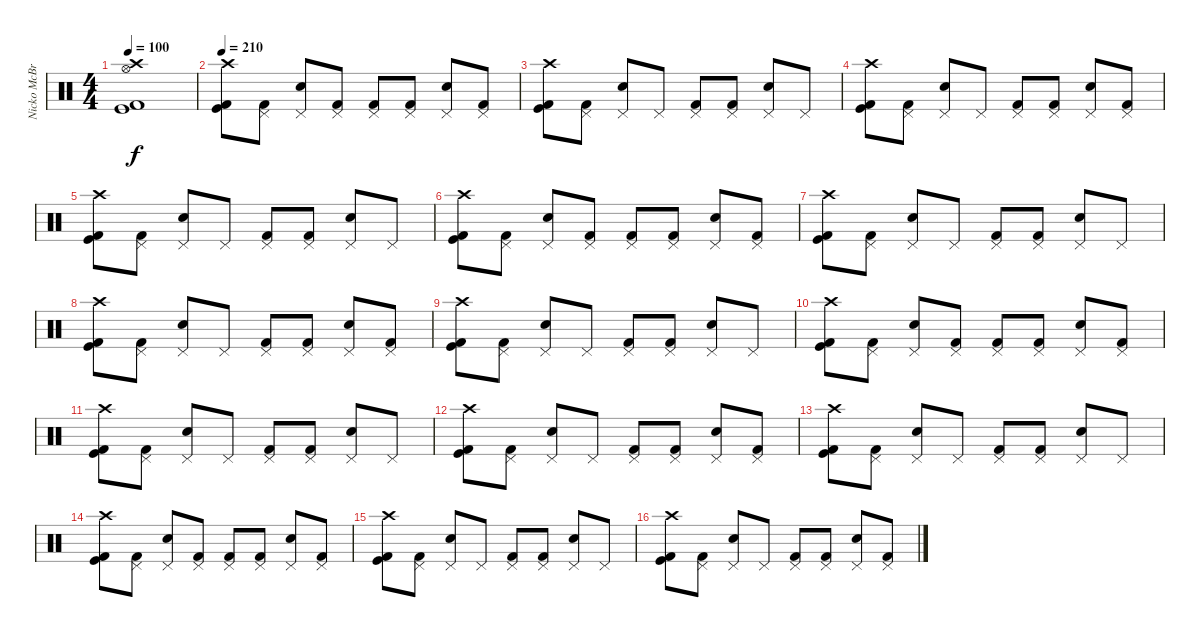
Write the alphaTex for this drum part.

\track ("Nicko McBrain" "Nicko McBr") {instrument percussion}
\staff {score}
\articulation defaults
\ts (4 4)
\tempo 100
\clef neutral
\ks c
("Crash high (hit)" "Hi-Hat (open)" "Kick (hit)" "Kick (hit) 2").1{dy f} |
\tempo 210
("Crash high (hit)" "Kick (hit)" "Kick (hit) 2").8 ("Pedal Hi-Hat (hit)" "Kick (hit) 2").8 ("Pedal Hi-Hat (hit)" "Snare (hit) 2").8 ("Pedal Hi-Hat (hit)" "Kick (hit) 2").8 ("Pedal Hi-Hat (hit)" "Kick (hit) 2").8 ("Pedal Hi-Hat (hit)" "Kick (hit) 2").8 ("Pedal Hi-Hat (hit)" "Snare (hit) 2").8 ("Pedal Hi-Hat (hit)" "Kick (hit) 2").8 |
("Crash high (hit)" "Kick (hit)" "Kick (hit) 2").8 ("Pedal Hi-Hat (hit)" "Kick (hit) 2").8 ("Pedal Hi-Hat (hit)" "Snare (hit) 2").8 "Pedal Hi-Hat (hit)".8 ("Pedal Hi-Hat (hit)" "Kick (hit) 2").8 ("Pedal Hi-Hat (hit)" "Kick (hit) 2").8 ("Pedal Hi-Hat (hit)" "Snare (hit) 2").8 "Pedal Hi-Hat (hit)".8 |
("Crash high (hit)" "Kick (hit)" "Kick (hit) 2").8 ("Pedal Hi-Hat (hit)" "Kick (hit) 2").8 ("Pedal Hi-Hat (hit)" "Snare (hit) 2").8 "Pedal Hi-Hat (hit)".8 ("Pedal Hi-Hat (hit)" "Kick (hit) 2").8 ("Pedal Hi-Hat (hit)" "Kick (hit) 2").8 ("Pedal Hi-Hat (hit)" "Snare (hit) 2").8 ("Pedal Hi-Hat (hit)" "Kick (hit) 2").8 |
("Crash high (hit)" "Kick (hit)" "Kick (hit) 2").8 ("Pedal Hi-Hat (hit)" "Kick (hit) 2").8 ("Pedal Hi-Hat (hit)" "Snare (hit) 2").8 "Pedal Hi-Hat (hit)".8 ("Pedal Hi-Hat (hit)" "Kick (hit) 2").8 ("Pedal Hi-Hat (hit)" "Kick (hit) 2").8 ("Pedal Hi-Hat (hit)" "Snare (hit) 2").8 "Pedal Hi-Hat (hit)".8 |
("Crash high (hit)" "Kick (hit)" "Kick (hit) 2").8 ("Pedal Hi-Hat (hit)" "Kick (hit) 2").8 ("Pedal Hi-Hat (hit)" "Snare (hit) 2").8 ("Pedal Hi-Hat (hit)" "Kick (hit) 2").8 ("Pedal Hi-Hat (hit)" "Kick (hit) 2").8 ("Pedal Hi-Hat (hit)" "Kick (hit) 2").8 ("Pedal Hi-Hat (hit)" "Snare (hit) 2").8 ("Pedal Hi-Hat (hit)" "Kick (hit) 2").8 |
("Crash high (hit)" "Kick (hit)" "Kick (hit) 2").8 ("Pedal Hi-Hat (hit)" "Kick (hit) 2").8 ("Pedal Hi-Hat (hit)" "Snare (hit) 2").8 "Pedal Hi-Hat (hit)".8 ("Pedal Hi-Hat (hit)" "Kick (hit) 2").8 ("Pedal Hi-Hat (hit)" "Kick (hit) 2").8 ("Pedal Hi-Hat (hit)" "Snare (hit) 2").8 "Pedal Hi-Hat (hit)".8 |
("Crash high (hit)" "Kick (hit)" "Kick (hit) 2").8 ("Pedal Hi-Hat (hit)" "Kick (hit) 2").8 ("Pedal Hi-Hat (hit)" "Snare (hit) 2").8 "Pedal Hi-Hat (hit)".8 ("Pedal Hi-Hat (hit)" "Kick (hit) 2").8 ("Pedal Hi-Hat (hit)" "Kick (hit) 2").8 ("Pedal Hi-Hat (hit)" "Snare (hit) 2").8 ("Pedal Hi-Hat (hit)" "Kick (hit) 2").8 |
("Crash high (hit)" "Kick (hit)" "Kick (hit) 2").8 ("Pedal Hi-Hat (hit)" "Kick (hit) 2").8 ("Pedal Hi-Hat (hit)" "Snare (hit) 2").8 "Pedal Hi-Hat (hit)".8 ("Pedal Hi-Hat (hit)" "Kick (hit) 2").8 ("Pedal Hi-Hat (hit)" "Kick (hit) 2").8 ("Pedal Hi-Hat (hit)" "Snare (hit) 2").8 "Pedal Hi-Hat (hit)".8 |
("Crash high (hit)" "Kick (hit)" "Kick (hit) 2").8 ("Pedal Hi-Hat (hit)" "Kick (hit) 2").8 ("Pedal Hi-Hat (hit)" "Snare (hit) 2").8 ("Pedal Hi-Hat (hit)" "Kick (hit) 2").8 ("Pedal Hi-Hat (hit)" "Kick (hit) 2").8 ("Pedal Hi-Hat (hit)" "Kick (hit) 2").8 ("Pedal Hi-Hat (hit)" "Snare (hit) 2").8 ("Pedal Hi-Hat (hit)" "Kick (hit) 2").8 |
("Crash high (hit)" "Kick (hit)" "Kick (hit) 2").8 ("Pedal Hi-Hat (hit)" "Kick (hit) 2").8 ("Pedal Hi-Hat (hit)" "Snare (hit) 2").8 "Pedal Hi-Hat (hit)".8 ("Pedal Hi-Hat (hit)" "Kick (hit) 2").8 ("Pedal Hi-Hat (hit)" "Kick (hit) 2").8 ("Pedal Hi-Hat (hit)" "Snare (hit) 2").8 "Pedal Hi-Hat (hit)".8 |
("Crash high (hit)" "Kick (hit)" "Kick (hit) 2").8 ("Pedal Hi-Hat (hit)" "Kick (hit) 2").8 ("Pedal Hi-Hat (hit)" "Snare (hit) 2").8 "Pedal Hi-Hat (hit)".8 ("Pedal Hi-Hat (hit)" "Kick (hit) 2").8 ("Pedal Hi-Hat (hit)" "Kick (hit) 2").8 ("Pedal Hi-Hat (hit)" "Snare (hit) 2").8 ("Pedal Hi-Hat (hit)" "Kick (hit) 2").8 |
("Crash high (hit)" "Kick (hit)" "Kick (hit) 2").8 ("Pedal Hi-Hat (hit)" "Kick (hit) 2").8 ("Pedal Hi-Hat (hit)" "Snare (hit) 2").8 "Pedal Hi-Hat (hit)".8 ("Pedal Hi-Hat (hit)" "Kick (hit) 2").8 ("Pedal Hi-Hat (hit)" "Kick (hit) 2").8 ("Pedal Hi-Hat (hit)" "Snare (hit) 2").8 "Pedal Hi-Hat (hit)".8 |
("Crash high (hit)" "Kick (hit)" "Kick (hit) 2").8 ("Pedal Hi-Hat (hit)" "Kick (hit) 2").8 ("Pedal Hi-Hat (hit)" "Snare (hit) 2").8 ("Pedal Hi-Hat (hit)" "Kick (hit) 2").8 ("Pedal Hi-Hat (hit)" "Kick (hit) 2").8 ("Pedal Hi-Hat (hit)" "Kick (hit) 2").8 ("Pedal Hi-Hat (hit)" "Snare (hit) 2").8 ("Pedal Hi-Hat (hit)" "Kick (hit) 2").8 |
("Crash high (hit)" "Kick (hit)" "Kick (hit) 2").8 ("Pedal Hi-Hat (hit)" "Kick (hit) 2").8 ("Pedal Hi-Hat (hit)" "Snare (hit) 2").8 "Pedal Hi-Hat (hit)".8 ("Pedal Hi-Hat (hit)" "Kick (hit) 2").8 ("Pedal Hi-Hat (hit)" "Kick (hit) 2").8 ("Pedal Hi-Hat (hit)" "Snare (hit) 2").8 "Pedal Hi-Hat (hit)".8 |
("Crash high (hit)" "Kick (hit)" "Kick (hit) 2").8 ("Pedal Hi-Hat (hit)" "Kick (hit) 2").8 ("Pedal Hi-Hat (hit)" "Snare (hit) 2").8 "Pedal Hi-Hat (hit)".8 ("Pedal Hi-Hat (hit)" "Kick (hit) 2").8 ("Pedal Hi-Hat (hit)" "Kick (hit) 2").8 ("Pedal Hi-Hat (hit)" "Snare (hit) 2").8 ("Pedal Hi-Hat (hit)" "Kick (hit) 2").8
